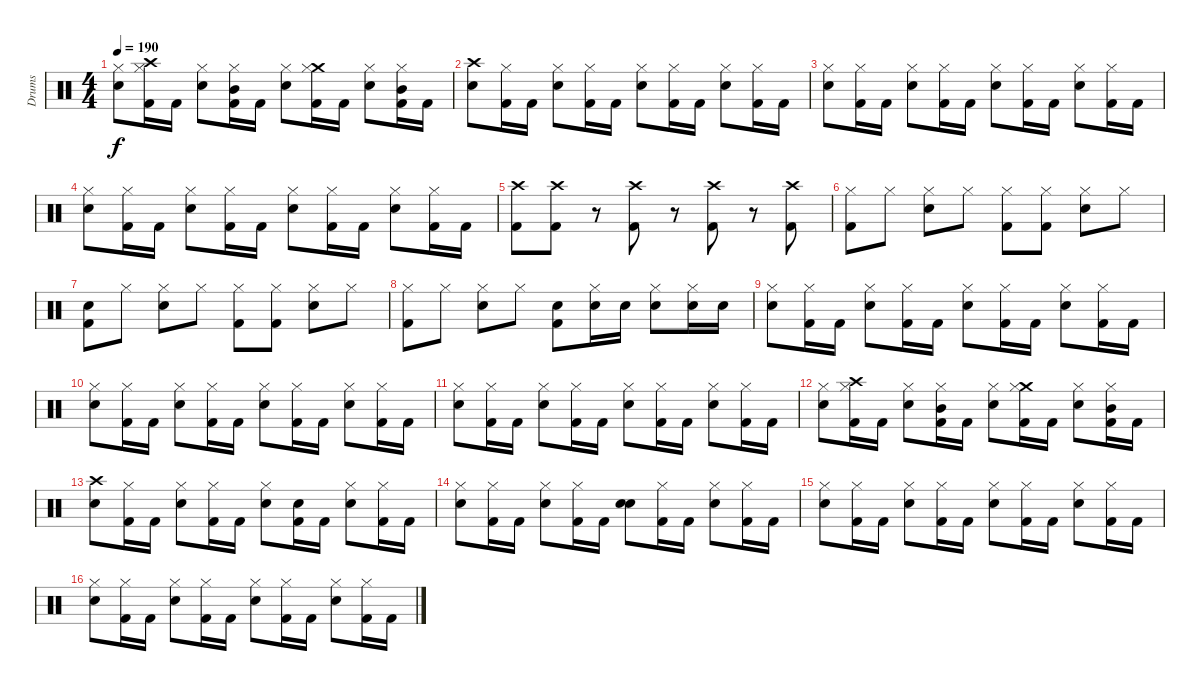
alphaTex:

\track ("Drums" "Drums") {instrument percussion}
\staff {score}
\articulation defaults
\ts (4 4)
\tempo 190
\clef neutral
\ks c
("Snare (hit) 2" "Hi-Hat (closed)").8{dy f} ("Kick (hit) 2" "Crash high (hit)" "Hi-Hat (closed)").16 "Kick (hit) 2".16 ("Snare (hit) 2" "Hi-Hat (closed)").8 ("Kick (hit) 2" "Mid Tom (hit)" "Hi-Hat (closed)").16 "Kick (hit) 2".16 ("Snare (hit) 2" "Hi-Hat (closed)").8 ("Kick (hit) 2" "Crash medium (hit)" "Hi-Hat (closed)").16 "Kick (hit) 2".16 ("Snare (hit) 2" "Hi-Hat (closed)").8 ("Kick (hit) 2" "Mid Tom (hit)" "Hi-Hat (closed)").16 "Kick (hit) 2".16 |
("Snare (hit) 2" "Crash high (hit)").8 ("Kick (hit) 2" "Hi-Hat (closed)").16 "Kick (hit) 2".16 ("Snare (hit) 2" "Hi-Hat (closed)").8 ("Kick (hit) 2" "Hi-Hat (closed)").16 "Kick (hit) 2".16 ("Snare (hit) 2" "Hi-Hat (closed)").8 ("Kick (hit) 2" "Hi-Hat (closed)").16 "Kick (hit) 2".16 ("Snare (hit) 2" "Hi-Hat (closed)").8 ("Kick (hit) 2" "Hi-Hat (closed)").16 "Kick (hit) 2".16 |
("Snare (hit) 2" "Hi-Hat (closed)").8 ("Kick (hit) 2" "Hi-Hat (closed)").16 "Kick (hit) 2".16 ("Snare (hit) 2" "Hi-Hat (closed)").8 ("Kick (hit) 2" "Hi-Hat (closed)").16 "Kick (hit) 2".16 ("Snare (hit) 2" "Hi-Hat (closed)").8 ("Kick (hit) 2" "Hi-Hat (closed)").16 "Kick (hit) 2".16 ("Snare (hit) 2" "Hi-Hat (closed)").8 ("Kick (hit) 2" "Hi-Hat (closed)").16 "Kick (hit) 2".16 |
("Snare (hit) 2" "Hi-Hat (closed)").8 ("Kick (hit) 2" "Hi-Hat (closed)").16 "Kick (hit) 2".16 ("Snare (hit) 2" "Hi-Hat (closed)").8 ("Kick (hit) 2" "Hi-Hat (closed)").16 "Kick (hit) 2".16 ("Snare (hit) 2" "Hi-Hat (closed)").8 ("Kick (hit) 2" "Hi-Hat (closed)").16 "Kick (hit) 2".16 ("Snare (hit) 2" "Hi-Hat (closed)").8 ("Kick (hit) 2" "Hi-Hat (closed)").16 "Kick (hit) 2".16 |
("Crash high (hit)" "Kick (hit) 2").8 ("Crash high (hit)" "Kick (hit) 2").8 r.8 ("Crash high (hit)" "Kick (hit) 2").8 r.8 ("Crash high (hit)" "Kick (hit) 2").8 r.8 ("Crash high (hit)" "Kick (hit) 2").8 |
("Kick (hit) 2" "Hi-Hat (closed)").8 "Hi-Hat (closed)".8 ("Snare (hit) 2" "Hi-Hat (closed)").8 "Hi-Hat (closed)".8 ("Kick (hit) 2" "Hi-Hat (closed)").8 ("Kick (hit) 2" "Hi-Hat (closed)").8 ("Snare (hit) 2" "Hi-Hat (closed)").8 "Hi-Hat (closed)".8 |
("Kick (hit) 2" "Snare (hit)").8 "Hi-Hat (closed)".8 ("Snare (hit) 2" "Hi-Hat (closed)").8 "Hi-Hat (closed)".8 ("Kick (hit) 2" "Hi-Hat (closed)").8 ("Kick (hit) 2" "Hi-Hat (closed)").8 ("Snare (hit) 2" "Hi-Hat (closed)").8 "Hi-Hat (closed)".8 |
("Kick (hit) 2" "Hi-Hat (closed)").8 "Hi-Hat (closed)".8 ("Snare (hit) 2" "Hi-Hat (closed)").8 "Hi-Hat (closed)".8 ("Kick (hit) 2" "Snare (hit)").8 ("Snare (hit) 2" "Hi-Hat (closed)").16 "Snare (hit) 2".16 ("Snare (hit) 2" "Hi-Hat (closed)").8 ("Snare (hit) 2" "Hi-Hat (closed)").16 "Snare (hit) 2".16 |
("Snare (hit) 2" "Hi-Hat (closed)").8 ("Kick (hit) 2" "Hi-Hat (closed)").16 "Kick (hit) 2".16 ("Snare (hit) 2" "Hi-Hat (closed)").8 ("Kick (hit) 2" "Hi-Hat (closed)").16 "Kick (hit) 2".16 ("Snare (hit) 2" "Hi-Hat (closed)").8 ("Kick (hit) 2" "Hi-Hat (closed)").16 "Kick (hit) 2".16 ("Snare (hit) 2" "Hi-Hat (closed)").8 ("Kick (hit) 2" "Hi-Hat (closed)").16 "Kick (hit) 2".16 |
("Snare (hit) 2" "Hi-Hat (closed)").8 ("Kick (hit) 2" "Hi-Hat (closed)").16 "Kick (hit) 2".16 ("Snare (hit) 2" "Hi-Hat (closed)").8 ("Kick (hit) 2" "Hi-Hat (closed)").16 "Kick (hit) 2".16 ("Snare (hit) 2" "Hi-Hat (closed)").8 ("Kick (hit) 2" "Hi-Hat (closed)").16 "Kick (hit) 2".16 ("Snare (hit) 2" "Hi-Hat (closed)").8 ("Kick (hit) 2" "Hi-Hat (closed)").16 "Kick (hit) 2".16 |
("Snare (hit) 2" "Hi-Hat (closed)").8 ("Kick (hit) 2" "Hi-Hat (closed)").16 "Kick (hit) 2".16 ("Snare (hit) 2" "Hi-Hat (closed)").8 ("Kick (hit) 2" "Hi-Hat (closed)").16 "Kick (hit) 2".16 ("Snare (hit) 2" "Hi-Hat (closed)").8 ("Kick (hit) 2" "Hi-Hat (closed)").16 "Kick (hit) 2".16 ("Snare (hit) 2" "Hi-Hat (closed)").8 ("Kick (hit) 2" "Hi-Hat (closed)").16 "Kick (hit) 2".16 |
("Snare (hit) 2" "Hi-Hat (closed)").8 ("Kick (hit) 2" "Crash high (hit)" "Hi-Hat (closed)").16 "Kick (hit) 2".16 ("Snare (hit) 2" "Hi-Hat (closed)").8 ("Kick (hit) 2" "Mid Tom (hit)" "Hi-Hat (closed)").16 "Kick (hit) 2".16 ("Snare (hit) 2" "Hi-Hat (closed)").8 ("Kick (hit) 2" "Crash medium (hit)" "Hi-Hat (closed)").16 "Kick (hit) 2".16 ("Snare (hit) 2" "Hi-Hat (closed)").8 ("Kick (hit) 2" "Mid Tom (hit)" "Hi-Hat (closed)").16 "Kick (hit) 2".16 |
("Snare (hit) 2" "Crash high (hit)").8 ("Kick (hit) 2" "Hi-Hat (closed)").16 "Kick (hit) 2".16 ("Snare (hit) 2" "Hi-Hat (closed)").8 ("Kick (hit) 2" "Hi-Hat (closed)").16 "Kick (hit) 2".16 ("Snare (hit) 2" "Hi-Hat (closed)").8 ("Kick (hit) 2" "Snare (hit)").16 "Kick (hit) 2".16 ("Snare (hit) 2" "Hi-Hat (closed)").8 ("Kick (hit) 2" "Hi-Hat (closed)").16 "Kick (hit) 2".16 |
("Snare (hit) 2" "Hi-Hat (closed)").8 ("Kick (hit) 2" "Hi-Hat (closed)").16 "Kick (hit) 2".16 ("Snare (hit) 2" "Hi-Hat (closed)").8 ("Kick (hit) 2" "Hi-Hat (closed)").16 "Kick (hit) 2".16 ("Snare (hit) 2" "Snare (hit)").8 ("Kick (hit) 2" "Hi-Hat (closed)").16 "Kick (hit) 2".16 ("Snare (hit) 2" "Hi-Hat (closed)").8 ("Kick (hit) 2" "Hi-Hat (closed)").16 "Kick (hit) 2".16 |
("Snare (hit) 2" "Hi-Hat (closed)").8 ("Kick (hit) 2" "Hi-Hat (closed)").16 "Kick (hit) 2".16 ("Snare (hit) 2" "Hi-Hat (closed)").8 ("Kick (hit) 2" "Hi-Hat (closed)").16 "Kick (hit) 2".16 ("Snare (hit) 2" "Hi-Hat (closed)").8 ("Kick (hit) 2" "Hi-Hat (closed)").16 "Kick (hit) 2".16 ("Snare (hit) 2" "Hi-Hat (closed)").8 ("Kick (hit) 2" "Hi-Hat (closed)").16 "Kick (hit) 2".16 |
("Snare (hit) 2" "Hi-Hat (closed)").8 ("Kick (hit) 2" "Hi-Hat (closed)").16 "Kick (hit) 2".16 ("Snare (hit) 2" "Hi-Hat (closed)").8 ("Kick (hit) 2" "Hi-Hat (closed)").16 "Kick (hit) 2".16 ("Snare (hit) 2" "Hi-Hat (closed)").8 ("Kick (hit) 2" "Hi-Hat (closed)").16 "Kick (hit) 2".16 ("Snare (hit) 2" "Hi-Hat (closed)").8 ("Kick (hit) 2" "Hi-Hat (closed)").16 "Kick (hit) 2".16
